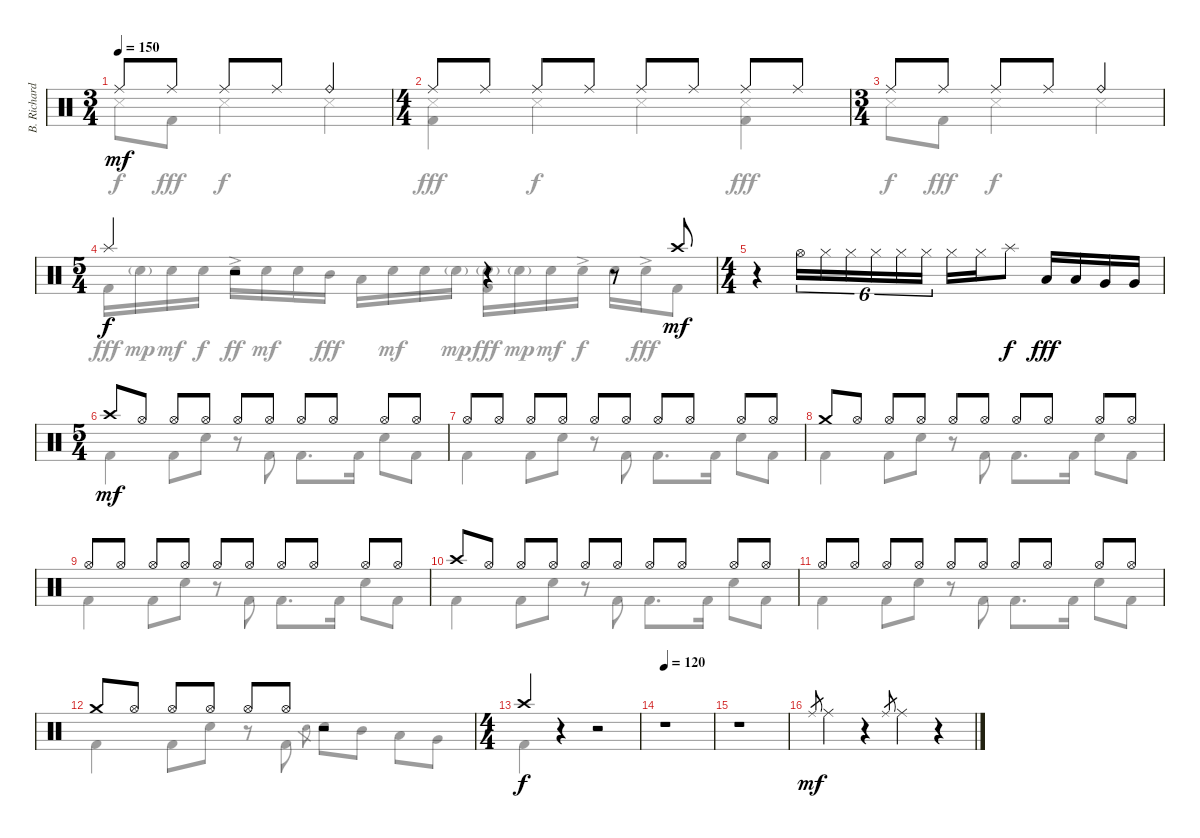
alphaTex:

\track ("B. Richardson Drums" "B. Richard") {instrument percussion}
\staff {score}
\articulation defaults
\voice
\ts (3 4)
\tempo 150
\clef neutral
\ks c "Ride (middle)".8{dy mf} "Ride (middle)".8 "Ride (middle)".8 "Ride (middle)".8 "Ride (bell)".4
|
\ts (4 4)
"Ride (middle)".8 "Ride (middle)".8 "Ride (middle)".8 "Ride (middle)".8 "Ride (middle)".8 "Ride (middle)".8 "Ride (middle)".8 "Ride (middle)".8 |
\ts (3 4)
"Ride (middle)".8 "Ride (middle)".8 "Ride (middle)".8 "Ride (middle)".8 "Ride (bell)".4 |
\ts (5 4)
"Splash (hit)".4{dy f} r.2 r.4 r.8 "Crash high (hit)".8{dy mf} |
\ts (4 4)
r.4 "Hi-Hat (open)".16{tu (6 4)} "Hi-Hat (closed)".16{tu (6 4)} "Hi-Hat (closed)".16{tu (6 4)} "Hi-Hat (closed)".16{tu (6 4)} "Hi-Hat (closed)".16{tu (6 4)} "Hi-Hat (closed)".16{tu (6 4)} "Hi-Hat (closed)".16 "Hi-Hat (closed)".16 "Splash (hit)".8{dy f} "Low Tom (hit)".16{dy fff} "Low Tom (hit)".16 "Very Low Tom (hit)".16 "Very Low Tom (hit)".16 |
\ts (5 4)
"Crash high (hit)".8{dy mf} "Hi-Hat (open)".8 "Hi-Hat (open)".8 "Hi-Hat (open)".8 "Hi-Hat (open)".8 "Hi-Hat (open)".8 "Hi-Hat (open)".8 "Hi-Hat (open)".8 "Hi-Hat (open)".8 "Hi-Hat (open)".8 |
"Hi-Hat (open)".8 "Hi-Hat (open)".8 "Hi-Hat (open)".8 "Hi-Hat (open)".8 "Hi-Hat (open)".8 "Hi-Hat (open)".8 "Hi-Hat (open)".8 "Hi-Hat (open)".8 "Hi-Hat (open)".8 "Hi-Hat (open)".8 |
"Crash medium (hit)".8 "Hi-Hat (open)".8 "Hi-Hat (open)".8 "Hi-Hat (open)".8 "Hi-Hat (open)".8 "Hi-Hat (open)".8 "Hi-Hat (open)".8 "Hi-Hat (open)".8 "Hi-Hat (open)".8 "Hi-Hat (open)".8 |
"Hi-Hat (open)".8 "Hi-Hat (open)".8 "Hi-Hat (open)".8 "Hi-Hat (open)".8 "Hi-Hat (open)".8 "Hi-Hat (open)".8 "Hi-Hat (open)".8 "Hi-Hat (open)".8 "Hi-Hat (open)".8 "Hi-Hat (open)".8 |
"Crash high (hit)".8 "Hi-Hat (open)".8 "Hi-Hat (open)".8 "Hi-Hat (open)".8 "Hi-Hat (open)".8 "Hi-Hat (open)".8 "Hi-Hat (open)".8 "Hi-Hat (open)".8 "Hi-Hat (open)".8 "Hi-Hat (open)".8 |
"Hi-Hat (open)".8 "Hi-Hat (open)".8 "Hi-Hat (open)".8 "Hi-Hat (open)".8 "Hi-Hat (open)".8 "Hi-Hat (open)".8 "Hi-Hat (open)".8 "Hi-Hat (open)".8 "Hi-Hat (open)".8 "Hi-Hat (open)".8 |
"Crash medium (hit)".8 "Hi-Hat (open)".8 "Hi-Hat (open)".8 "Hi-Hat (open)".8 "Hi-Hat (open)".8 "Hi-Hat (open)".8 r.2 |
\ts (4 4)
"Crash high (hit)".4{dy f} r.4 r.2 |
\tempo 120
r.1 |
r.1 |
"Ride (middle)".8{gr dy mf} "Ride (middle)".4 r.4 "Ride (middle)".8{gr} "Ride (middle)".4 r.4
\voice
\clef neutral
\ottava regular
\simile none
\ks c "Snare (side stick) 3".8{dy f} "Kick (hit) 2".8{dy fff} "Snare (side stick) 3".4{dy f} "Snare (side stick) 3".4
|
("Snare (side stick) 3" "Kick (hit) 2").4{dy fff} "Snare (side stick) 3".4{dy f} "Snare (side stick) 3".4 ("Snare (side stick) 3" "Kick (hit) 2").4{dy fff} |
"Snare (side stick) 3".8{dy f} "Kick (hit) 2".8{dy fff} "Snare (side stick) 3".4{dy f} "Snare (side stick) 3".4 |
"Kick (hit) 2".16{dy fff} "Electric Snare (hit)"{g}.16{dy mp} "Electric Snare (hit)".16{dy mf} "Electric Snare (hit)".16{dy f} "Electric Snare (hit)"{ac}.16{dy ff} "Electric Snare (hit)".16{dy mf} "Electric Snare (hit)".16 "Mid Tom (hit)".16{dy fff} "Low Tom (hit)".16 "Electric Snare (hit)".16{dy mf} "Electric Snare (hit)".16 "Electric Snare (hit)"{g}.16{dy mp} ("Electric Snare (hit)"{g} "Kick (hit) 2").16{dy fff} "Electric Snare (hit)"{g}.16{dy mp} "Electric Snare (hit)".16{dy mf} "Electric Snare (hit)"{ac}.16{dy f} "Electric Snare (hit)".16 "Electric Snare (hit)"{ac}.16{dy fff} "Kick (hit) 2".8 |
|
"Kick (hit) 2".4 "Kick (hit) 2".8 "Electric Snare (hit)".8 r.8 "Kick (hit) 2".8 "Kick (hit) 2".8{d} "Kick (hit) 2".16 "Electric Snare (hit)".8 "Kick (hit) 2".8 |
"Kick (hit) 2".4 "Kick (hit) 2".8 "Electric Snare (hit)".8 r.8 "Kick (hit) 2".8 "Kick (hit) 2".8{d} "Kick (hit) 2".16 "Electric Snare (hit)".8 "Kick (hit) 2".8 |
"Kick (hit) 2".4 "Kick (hit) 2".8 "Electric Snare (hit)".8 r.8 "Kick (hit) 2".8 "Kick (hit) 2".8{d} "Kick (hit) 2".16 "Electric Snare (hit)".8 "Kick (hit) 2".8 |
"Kick (hit) 2".4 "Kick (hit) 2".8 "Electric Snare (hit)".8 r.8 "Kick (hit) 2".8 "Kick (hit) 2".8{d} "Kick (hit) 2".16 "Electric Snare (hit)".8 "Kick (hit) 2".8 |
"Kick (hit) 2".4 "Kick (hit) 2".8 "Electric Snare (hit)".8 r.8 "Kick (hit) 2".8 "Kick (hit) 2".8{d} "Kick (hit) 2".16 "Electric Snare (hit)".8 "Kick (hit) 2".8 |
"Kick (hit) 2".4 "Kick (hit) 2".8 "Electric Snare (hit)".8 r.8 "Kick (hit) 2".8 "Kick (hit) 2".8{d} "Kick (hit) 2".16 "Electric Snare (hit)".8 "Kick (hit) 2".8 |
"Kick (hit) 2".4 "Kick (hit) 2".8 "Electric Snare (hit)".8 r.8 "Kick (hit) 2".8 "Electric Snare (hit)".8{gr} "Electric Snare (hit)".8 "Mid Tom (hit)".8 "Low Tom (hit)".8 "Very Low Tom (hit)".8 |
"Kick (hit) 2".4 r.4 r.2 |
|
|
